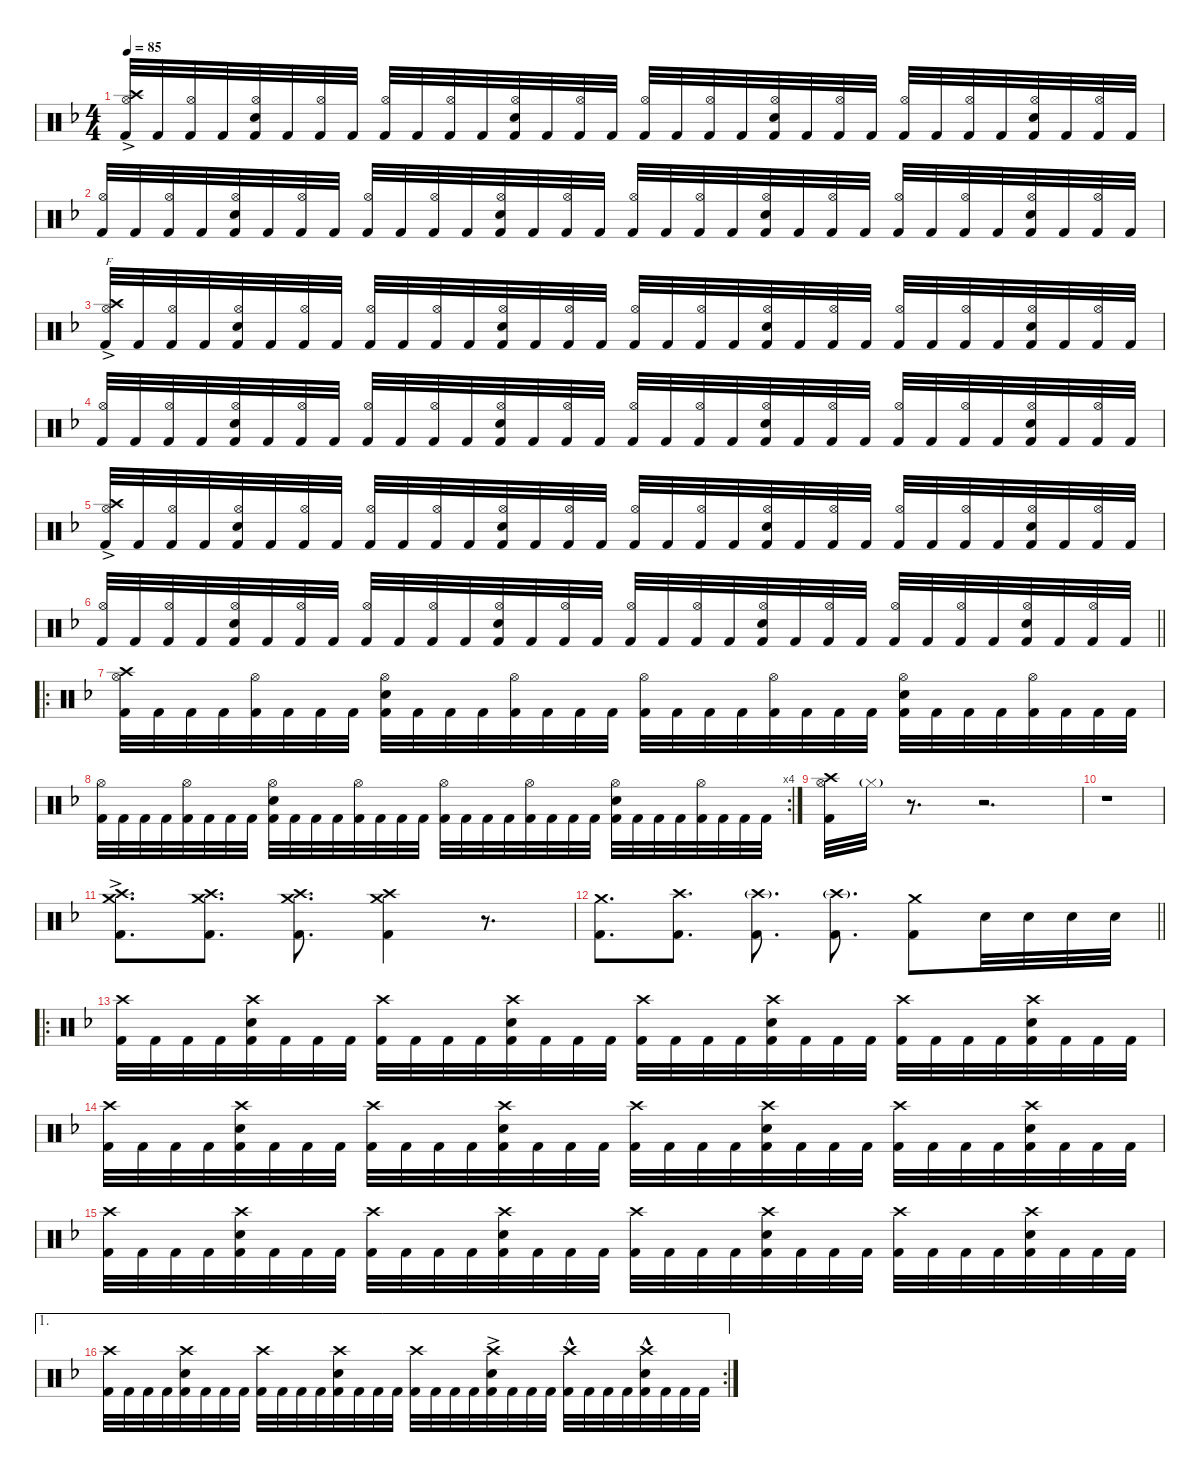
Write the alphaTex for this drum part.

\defaultSystemsLayout 4
\hideDynamics
\bracketExtendMode nobrackets
\singleTrackTrackNamePolicy hidden
\multiTrackTrackNamePolicy hidden
\firstSystemTrackNameMode fullname
\firstSystemTrackNameOrientation horizontal
\otherSystemsTrackNameOrientation horizontal
\track ("Martin Lopez - Drums" "drm.") {instrument percussion}
\staff {score}
\articulation defaults
\ts (4 4)
\tempo 85
\clef neutral
\ks f
("Crash high (hit)"{ac acc forcenatural} "Hi-Hat (open)"{acc forcenatural} "Kick (hit) 2"{acc forcenatural}).32{dy f beam Up} "Kick (hit) 2"{acc forcenatural}.32{beam Up} ("Hi-Hat (open)"{acc forcenatural} "Kick (hit) 2"{acc forcenatural}).32{beam Up} "Kick (hit) 2"{acc forcenatural}.32{beam Up} ("Hi-Hat (open)"{acc forcenatural} "Snare (hit) 2"{acc forcenatural} "Kick (hit) 2"{acc forcenatural}).32{beam Up} "Kick (hit) 2"{acc forcenatural}.32{beam Up} ("Hi-Hat (open)"{acc forcenatural} "Kick (hit) 2"{acc forcenatural}).32{beam Up} "Kick (hit) 2"{acc forcenatural}.32{beam Up} ("Hi-Hat (open)"{acc forcenatural} "Kick (hit) 2"{acc forcenatural}).32{beam Up} "Kick (hit) 2"{acc forcenatural}.32{beam Up} ("Hi-Hat (open)"{acc forcenatural} "Kick (hit) 2"{acc forcenatural}).32{beam Up} "Kick (hit) 2"{acc forcenatural}.32{beam Up} ("Hi-Hat (open)"{acc forcenatural} "Snare (hit) 2"{acc forcenatural} "Kick (hit) 2"{acc forcenatural}).32{beam Up} "Kick (hit) 2"{acc forcenatural}.32{beam Up} ("Hi-Hat (open)"{acc forcenatural} "Kick (hit) 2"{acc forcenatural}).32{beam Up} "Kick (hit) 2"{acc forcenatural}.32{beam Up} ("Hi-Hat (open)"{acc forcenatural} "Kick (hit) 2"{acc forcenatural}).32{beam Up} "Kick (hit) 2"{acc forcenatural}.32{beam Up} ("Hi-Hat (open)"{acc forcenatural} "Kick (hit) 2"{acc forcenatural}).32{beam Up} "Kick (hit) 2"{acc forcenatural}.32{beam Up} ("Hi-Hat (open)"{acc forcenatural} "Snare (hit) 2"{acc forcenatural} "Kick (hit) 2"{acc forcenatural}).32{beam Up} "Kick (hit) 2"{acc forcenatural}.32{beam Up} ("Hi-Hat (open)"{acc forcenatural} "Kick (hit) 2"{acc forcenatural}).32{beam Up} "Kick (hit) 2"{acc forcenatural}.32{beam Up} ("Hi-Hat (open)"{acc forcenatural} "Kick (hit) 2"{acc forcenatural}).32{beam Up} "Kick (hit) 2"{acc forcenatural}.32{beam Up} ("Hi-Hat (open)"{acc forcenatural} "Kick (hit) 2"{acc forcenatural}).32{beam Up} "Kick (hit) 2"{acc forcenatural}.32{beam Up} ("Hi-Hat (open)"{acc forcenatural} "Snare (hit) 2"{acc forcenatural} "Kick (hit) 2"{acc forcenatural}).32{beam Up} "Kick (hit) 2"{acc forcenatural}.32{beam Up} ("Hi-Hat (open)"{acc forcenatural} "Kick (hit) 2"{acc forcenatural}).32{beam Up} "Kick (hit) 2"{acc forcenatural}.32{beam Up} |
("Hi-Hat (open)"{acc forcenatural} "Kick (hit) 2"{acc forcenatural}).32{beam Up} "Kick (hit) 2"{acc forcenatural}.32{beam Up} ("Hi-Hat (open)"{acc forcenatural} "Kick (hit) 2"{acc forcenatural}).32{beam Up} "Kick (hit) 2"{acc forcenatural}.32{beam Up} ("Hi-Hat (open)"{acc forcenatural} "Snare (hit) 2"{acc forcenatural} "Kick (hit) 2"{acc forcenatural}).32{beam Up} "Kick (hit) 2"{acc forcenatural}.32{beam Up} ("Hi-Hat (open)"{acc forcenatural} "Kick (hit) 2"{acc forcenatural}).32{beam Up} "Kick (hit) 2"{acc forcenatural}.32{beam Up} ("Hi-Hat (open)"{acc forcenatural} "Kick (hit) 2"{acc forcenatural}).32{beam Up} "Kick (hit) 2"{acc forcenatural}.32{beam Up} ("Hi-Hat (open)"{acc forcenatural} "Kick (hit) 2"{acc forcenatural}).32{beam Up} "Kick (hit) 2"{acc forcenatural}.32{beam Up} ("Hi-Hat (open)"{acc forcenatural} "Snare (hit) 2"{acc forcenatural} "Kick (hit) 2"{acc forcenatural}).32{beam Up} "Kick (hit) 2"{acc forcenatural}.32{beam Up} ("Hi-Hat (open)"{acc forcenatural} "Kick (hit) 2"{acc forcenatural}).32{beam Up} "Kick (hit) 2"{acc forcenatural}.32{beam Up} ("Hi-Hat (open)"{acc forcenatural} "Kick (hit) 2"{acc forcenatural}).32{beam Up} "Kick (hit) 2"{acc forcenatural}.32{beam Up} ("Hi-Hat (open)"{acc forcenatural} "Kick (hit) 2"{acc forcenatural}).32{beam Up} "Kick (hit) 2"{acc forcenatural}.32{beam Up} ("Hi-Hat (open)"{acc forcenatural} "Snare (hit) 2"{acc forcenatural} "Kick (hit) 2"{acc forcenatural}).32{beam Up} "Kick (hit) 2"{acc forcenatural}.32{beam Up} ("Hi-Hat (open)"{acc forcenatural} "Kick (hit) 2"{acc forcenatural}).32{beam Up} "Kick (hit) 2"{acc forcenatural}.32{beam Up} ("Hi-Hat (open)"{acc forcenatural} "Kick (hit) 2"{acc forcenatural}).32{beam Up} "Kick (hit) 2"{acc forcenatural}.32{beam Up} ("Hi-Hat (open)"{acc forcenatural} "Kick (hit) 2"{acc forcenatural}).32{beam Up} "Kick (hit) 2"{acc forcenatural}.32{beam Up} ("Hi-Hat (open)"{acc forcenatural} "Snare (hit) 2"{acc forcenatural} "Kick (hit) 2"{acc forcenatural}).32{beam Up} "Kick (hit) 2"{acc forcenatural}.32{beam Up} ("Hi-Hat (open)"{acc forcenatural} "Kick (hit) 2"{acc forcenatural}).32{beam Up} "Kick (hit) 2"{acc forcenatural}.32{beam Up} |
("Crash high (hit)"{ac acc forcenatural} "Hi-Hat (open)"{acc forcenatural} "Kick (hit) 2"{acc forcenatural}).32{txt "F" beam Up} "Kick (hit) 2"{acc forcenatural}.32{beam Up} ("Hi-Hat (open)"{acc forcenatural} "Kick (hit) 2"{acc forcenatural}).32{beam Up} "Kick (hit) 2"{acc forcenatural}.32{beam Up} ("Hi-Hat (open)"{acc forcenatural} "Snare (hit) 2"{acc forcenatural} "Kick (hit) 2"{acc forcenatural}).32{beam Up} "Kick (hit) 2"{acc forcenatural}.32{beam Up} ("Hi-Hat (open)"{acc forcenatural} "Kick (hit) 2"{acc forcenatural}).32{beam Up} "Kick (hit) 2"{acc forcenatural}.32{beam Up} ("Hi-Hat (open)"{acc forcenatural} "Kick (hit) 2"{acc forcenatural}).32{beam Up} "Kick (hit) 2"{acc forcenatural}.32{beam Up} ("Hi-Hat (open)"{acc forcenatural} "Kick (hit) 2"{acc forcenatural}).32{beam Up} "Kick (hit) 2"{acc forcenatural}.32{beam Up} ("Hi-Hat (open)"{acc forcenatural} "Snare (hit) 2"{acc forcenatural} "Kick (hit) 2"{acc forcenatural}).32{beam Up} "Kick (hit) 2"{acc forcenatural}.32{beam Up} ("Hi-Hat (open)"{acc forcenatural} "Kick (hit) 2"{acc forcenatural}).32{beam Up} "Kick (hit) 2"{acc forcenatural}.32{beam Up} ("Hi-Hat (open)"{acc forcenatural} "Kick (hit) 2"{acc forcenatural}).32{beam Up} "Kick (hit) 2"{acc forcenatural}.32{beam Up} ("Hi-Hat (open)"{acc forcenatural} "Kick (hit) 2"{acc forcenatural}).32{beam Up} "Kick (hit) 2"{acc forcenatural}.32{beam Up} ("Hi-Hat (open)"{acc forcenatural} "Snare (hit) 2"{acc forcenatural} "Kick (hit) 2"{acc forcenatural}).32{beam Up} "Kick (hit) 2"{acc forcenatural}.32{beam Up} ("Hi-Hat (open)"{acc forcenatural} "Kick (hit) 2"{acc forcenatural}).32{beam Up} "Kick (hit) 2"{acc forcenatural}.32{beam Up} ("Hi-Hat (open)"{acc forcenatural} "Kick (hit) 2"{acc forcenatural}).32{beam Up} "Kick (hit) 2"{acc forcenatural}.32{beam Up} ("Hi-Hat (open)"{acc forcenatural} "Kick (hit) 2"{acc forcenatural}).32{beam Up} "Kick (hit) 2"{acc forcenatural}.32{beam Up} ("Hi-Hat (open)"{acc forcenatural} "Snare (hit) 2"{acc forcenatural} "Kick (hit) 2"{acc forcenatural}).32{beam Up} "Kick (hit) 2"{acc forcenatural}.32{beam Up} ("Hi-Hat (open)"{acc forcenatural} "Kick (hit) 2"{acc forcenatural}).32{beam Up} "Kick (hit) 2"{acc forcenatural}.32{beam Up} |
("Hi-Hat (open)"{acc forcenatural} "Kick (hit) 2"{acc forcenatural}).32{beam Up} "Kick (hit) 2"{acc forcenatural}.32{beam Up} ("Hi-Hat (open)"{acc forcenatural} "Kick (hit) 2"{acc forcenatural}).32{beam Up} "Kick (hit) 2"{acc forcenatural}.32{beam Up} ("Hi-Hat (open)"{acc forcenatural} "Snare (hit) 2"{acc forcenatural} "Kick (hit) 2"{acc forcenatural}).32{beam Up} "Kick (hit) 2"{acc forcenatural}.32{beam Up} ("Hi-Hat (open)"{acc forcenatural} "Kick (hit) 2"{acc forcenatural}).32{beam Up} "Kick (hit) 2"{acc forcenatural}.32{beam Up} ("Hi-Hat (open)"{acc forcenatural} "Kick (hit) 2"{acc forcenatural}).32{beam Up} "Kick (hit) 2"{acc forcenatural}.32{beam Up} ("Hi-Hat (open)"{acc forcenatural} "Kick (hit) 2"{acc forcenatural}).32{beam Up} "Kick (hit) 2"{acc forcenatural}.32{beam Up} ("Hi-Hat (open)"{acc forcenatural} "Snare (hit) 2"{acc forcenatural} "Kick (hit) 2"{acc forcenatural}).32{beam Up} "Kick (hit) 2"{acc forcenatural}.32{beam Up} ("Hi-Hat (open)"{acc forcenatural} "Kick (hit) 2"{acc forcenatural}).32{beam Up} "Kick (hit) 2"{acc forcenatural}.32{beam Up} ("Hi-Hat (open)"{acc forcenatural} "Kick (hit) 2"{acc forcenatural}).32{beam Up} "Kick (hit) 2"{acc forcenatural}.32{beam Up} ("Hi-Hat (open)"{acc forcenatural} "Kick (hit) 2"{acc forcenatural}).32{beam Up} "Kick (hit) 2"{acc forcenatural}.32{beam Up} ("Hi-Hat (open)"{acc forcenatural} "Snare (hit) 2"{acc forcenatural} "Kick (hit) 2"{acc forcenatural}).32{beam Up} "Kick (hit) 2"{acc forcenatural}.32{beam Up} ("Hi-Hat (open)"{acc forcenatural} "Kick (hit) 2"{acc forcenatural}).32{beam Up} "Kick (hit) 2"{acc forcenatural}.32{beam Up} ("Hi-Hat (open)"{acc forcenatural} "Kick (hit) 2"{acc forcenatural}).32{beam Up} "Kick (hit) 2"{acc forcenatural}.32{beam Up} ("Hi-Hat (open)"{acc forcenatural} "Kick (hit) 2"{acc forcenatural}).32{beam Up} "Kick (hit) 2"{acc forcenatural}.32{beam Up} ("Hi-Hat (open)"{acc forcenatural} "Snare (hit) 2"{acc forcenatural} "Kick (hit) 2"{acc forcenatural}).32{beam Up} "Kick (hit) 2"{acc forcenatural}.32{beam Up} ("Hi-Hat (open)"{acc forcenatural} "Kick (hit) 2"{acc forcenatural}).32{beam Up} "Kick (hit) 2"{acc forcenatural}.32{beam Up} |
("Crash high (hit)"{ac acc forcenatural} "Hi-Hat (open)"{acc forcenatural} "Kick (hit) 2"{acc forcenatural}).32{beam Up} "Kick (hit) 2"{acc forcenatural}.32{beam Up} ("Hi-Hat (open)"{acc forcenatural} "Kick (hit) 2"{acc forcenatural}).32{beam Up} "Kick (hit) 2"{acc forcenatural}.32{beam Up} ("Hi-Hat (open)"{acc forcenatural} "Snare (hit) 2"{acc forcenatural} "Kick (hit) 2"{acc forcenatural}).32{beam Up} "Kick (hit) 2"{acc forcenatural}.32{beam Up} ("Hi-Hat (open)"{acc forcenatural} "Kick (hit) 2"{acc forcenatural}).32{beam Up} "Kick (hit) 2"{acc forcenatural}.32{beam Up} ("Hi-Hat (open)"{acc forcenatural} "Kick (hit) 2"{acc forcenatural}).32{beam Up} "Kick (hit) 2"{acc forcenatural}.32{beam Up} ("Hi-Hat (open)"{acc forcenatural} "Kick (hit) 2"{acc forcenatural}).32{beam Up} "Kick (hit) 2"{acc forcenatural}.32{beam Up} ("Hi-Hat (open)"{acc forcenatural} "Snare (hit) 2"{acc forcenatural} "Kick (hit) 2"{acc forcenatural}).32{beam Up} "Kick (hit) 2"{acc forcenatural}.32{beam Up} ("Hi-Hat (open)"{acc forcenatural} "Kick (hit) 2"{acc forcenatural}).32{beam Up} "Kick (hit) 2"{acc forcenatural}.32{beam Up} ("Hi-Hat (open)"{acc forcenatural} "Kick (hit) 2"{acc forcenatural}).32{beam Up} "Kick (hit) 2"{acc forcenatural}.32{beam Up} ("Hi-Hat (open)"{acc forcenatural} "Kick (hit) 2"{acc forcenatural}).32{beam Up} "Kick (hit) 2"{acc forcenatural}.32{beam Up} ("Hi-Hat (open)"{acc forcenatural} "Snare (hit) 2"{acc forcenatural} "Kick (hit) 2"{acc forcenatural}).32{beam Up} "Kick (hit) 2"{acc forcenatural}.32{beam Up} ("Hi-Hat (open)"{acc forcenatural} "Kick (hit) 2"{acc forcenatural}).32{beam Up} "Kick (hit) 2"{acc forcenatural}.32{beam Up} ("Hi-Hat (open)"{acc forcenatural} "Kick (hit) 2"{acc forcenatural}).32{beam Up} "Kick (hit) 2"{acc forcenatural}.32{beam Up} ("Hi-Hat (open)"{acc forcenatural} "Kick (hit) 2"{acc forcenatural}).32{beam Up} "Kick (hit) 2"{acc forcenatural}.32{beam Up} ("Hi-Hat (open)"{acc forcenatural} "Snare (hit) 2"{acc forcenatural} "Kick (hit) 2"{acc forcenatural}).32{beam Up} "Kick (hit) 2"{acc forcenatural}.32{beam Up} ("Hi-Hat (open)"{acc forcenatural} "Kick (hit) 2"{acc forcenatural}).32{beam Up} "Kick (hit) 2"{acc forcenatural}.32{beam Up} |
\barLineRight lightlight
("Hi-Hat (open)"{acc forcenatural} "Kick (hit) 2"{acc forcenatural}).32{beam Up} "Kick (hit) 2"{acc forcenatural}.32{beam Up} ("Hi-Hat (open)"{acc forcenatural} "Kick (hit) 2"{acc forcenatural}).32{beam Up} "Kick (hit) 2"{acc forcenatural}.32{beam Up} ("Hi-Hat (open)"{acc forcenatural} "Snare (hit) 2"{acc forcenatural} "Kick (hit) 2"{acc forcenatural}).32{beam Up} "Kick (hit) 2"{acc forcenatural}.32{beam Up} ("Hi-Hat (open)"{acc forcenatural} "Kick (hit) 2"{acc forcenatural}).32{beam Up} "Kick (hit) 2"{acc forcenatural}.32{beam Up} ("Hi-Hat (open)"{acc forcenatural} "Kick (hit) 2"{acc forcenatural}).32{beam Up} "Kick (hit) 2"{acc forcenatural}.32{beam Up} ("Hi-Hat (open)"{acc forcenatural} "Kick (hit) 2"{acc forcenatural}).32{beam Up} "Kick (hit) 2"{acc forcenatural}.32{beam Up} ("Hi-Hat (open)"{acc forcenatural} "Snare (hit) 2"{acc forcenatural} "Kick (hit) 2"{acc forcenatural}).32{beam Up} "Kick (hit) 2"{acc forcenatural}.32{beam Up} ("Hi-Hat (open)"{acc forcenatural} "Kick (hit) 2"{acc forcenatural}).32{beam Up} "Kick (hit) 2"{acc forcenatural}.32{beam Up} ("Hi-Hat (open)"{acc forcenatural} "Kick (hit) 2"{acc forcenatural}).32{beam Up} "Kick (hit) 2"{acc forcenatural}.32{beam Up} ("Hi-Hat (open)"{acc forcenatural} "Kick (hit) 2"{acc forcenatural}).32{beam Up} "Kick (hit) 2"{acc forcenatural}.32{beam Up} ("Hi-Hat (open)"{acc forcenatural} "Snare (hit) 2"{acc forcenatural} "Kick (hit) 2"{acc forcenatural}).32{beam Up} "Kick (hit) 2"{acc forcenatural}.32{beam Up} ("Hi-Hat (open)"{acc forcenatural} "Kick (hit) 2"{acc forcenatural}).32{beam Up} "Kick (hit) 2"{acc forcenatural}.32{beam Up} ("Hi-Hat (open)"{acc forcenatural} "Kick (hit) 2"{acc forcenatural}).32{beam Up} "Kick (hit) 2"{acc forcenatural}.32{beam Up} ("Hi-Hat (open)"{acc forcenatural} "Kick (hit) 2"{acc forcenatural}).32{beam Up} "Kick (hit) 2"{acc forcenatural}.32{beam Up} ("Hi-Hat (open)"{acc forcenatural} "Snare (hit) 2"{acc forcenatural} "Kick (hit) 2"{acc forcenatural}).32{beam Up} "Kick (hit) 2"{acc forcenatural}.32{beam Up} ("Hi-Hat (open)"{acc forcenatural} "Kick (hit) 2"{acc forcenatural}).32{beam Up} "Kick (hit) 2"{acc forcenatural}.32{beam Up} |
\ro
("Crash high (hit)"{acc forcenatural} "Hi-Hat (open)"{acc forcenatural} "Kick (hit) 2"{acc forcenatural}).32{beam Down} "Kick (hit) 2"{acc forcenatural}.32{beam Down} "Kick (hit) 2"{acc forcenatural}.32{beam Down} "Kick (hit) 2"{acc forcenatural}.32{beam Down} ("Hi-Hat (open)"{acc forcenatural} "Kick (hit) 2"{acc forcenatural}).32{beam Down} "Kick (hit) 2"{acc forcenatural}.32{beam Down} "Kick (hit) 2"{acc forcenatural}.32{beam Down} "Kick (hit) 2"{acc forcenatural}.32{beam Down} ("Hi-Hat (open)"{acc forcenatural} "Snare (hit) 2"{acc forcenatural} "Kick (hit) 2"{acc forcenatural}).32{beam Down} "Kick (hit) 2"{acc forcenatural}.32{beam Down} "Kick (hit) 2"{acc forcenatural}.32{beam Down} "Kick (hit) 2"{acc forcenatural}.32{beam Down} ("Hi-Hat (open)"{acc forcenatural} "Kick (hit) 2"{acc forcenatural}).32{beam Down} "Kick (hit) 2"{acc forcenatural}.32{beam Down} "Kick (hit) 2"{acc forcenatural}.32{beam Down} "Kick (hit) 2"{acc forcenatural}.32{beam Down} ("Hi-Hat (open)"{acc forcenatural} "Kick (hit) 2"{acc forcenatural}).32{beam Down} "Kick (hit) 2"{acc forcenatural}.32{beam Down} "Kick (hit) 2"{acc forcenatural}.32{beam Down} "Kick (hit) 2"{acc forcenatural}.32{beam Down} ("Hi-Hat (open)"{acc forcenatural} "Kick (hit) 2"{acc forcenatural}).32{beam Down} "Kick (hit) 2"{acc forcenatural}.32{beam Down} "Kick (hit) 2"{acc forcenatural}.32{beam Down} "Kick (hit) 2"{acc forcenatural}.32{beam Down} ("Hi-Hat (open)"{acc forcenatural} "Snare (hit) 2"{acc forcenatural} "Kick (hit) 2"{acc forcenatural}).32{beam Down} "Kick (hit) 2"{acc forcenatural}.32{beam Down} "Kick (hit) 2"{acc forcenatural}.32{beam Down} "Kick (hit) 2"{acc forcenatural}.32{beam Down} ("Hi-Hat (open)"{acc forcenatural} "Kick (hit) 2"{acc forcenatural}).32{beam Down} "Kick (hit) 2"{acc forcenatural}.32{beam Down} "Kick (hit) 2"{acc forcenatural}.32{beam Down} "Kick (hit) 2"{acc forcenatural}.32{beam Down} |
\rc 4
("Hi-Hat (open)"{acc forcenatural} "Kick (hit) 2"{acc forcenatural}).32{beam Down} "Kick (hit) 2"{acc forcenatural}.32{beam Down} "Kick (hit) 2"{acc forcenatural}.32{beam Down} "Kick (hit) 2"{acc forcenatural}.32{beam Down} ("Hi-Hat (open)"{acc forcenatural} "Kick (hit) 2"{acc forcenatural}).32{beam Down} "Kick (hit) 2"{acc forcenatural}.32{beam Down} "Kick (hit) 2"{acc forcenatural}.32{beam Down} "Kick (hit) 2"{acc forcenatural}.32{beam Down} ("Hi-Hat (open)"{acc forcenatural} "Snare (hit) 2"{acc forcenatural} "Kick (hit) 2"{acc forcenatural}).32{beam Down} "Kick (hit) 2"{acc forcenatural}.32{beam Down} "Kick (hit) 2"{acc forcenatural}.32{beam Down} "Kick (hit) 2"{acc forcenatural}.32{beam Down} ("Hi-Hat (open)"{acc forcenatural} "Kick (hit) 2"{acc forcenatural}).32{beam Down} "Kick (hit) 2"{acc forcenatural}.32{beam Down} "Kick (hit) 2"{acc forcenatural}.32{beam Down} "Kick (hit) 2"{acc forcenatural}.32{beam Down} ("Hi-Hat (open)"{acc forcenatural} "Kick (hit) 2"{acc forcenatural}).32{beam Down} "Kick (hit) 2"{acc forcenatural}.32{beam Down} "Kick (hit) 2"{acc forcenatural}.32{beam Down} "Kick (hit) 2"{acc forcenatural}.32{beam Down} ("Hi-Hat (open)"{acc forcenatural} "Kick (hit) 2"{acc forcenatural}).32{beam Down} "Kick (hit) 2"{acc forcenatural}.32{beam Down} "Kick (hit) 2"{acc forcenatural}.32{beam Down} "Kick (hit) 2"{acc forcenatural}.32{beam Down} ("Hi-Hat (open)"{acc forcenatural} "Snare (hit) 2"{acc forcenatural} "Kick (hit) 2"{acc forcenatural}).32{beam Down} "Kick (hit) 2"{acc forcenatural}.32{beam Down} "Kick (hit) 2"{acc forcenatural}.32{beam Down} "Kick (hit) 2"{acc forcenatural}.32{beam Down} ("Hi-Hat (open)"{acc forcenatural} "Kick (hit) 2"{acc forcenatural}).32{beam Down} "Kick (hit) 2"{acc forcenatural}.32{beam Down} "Kick (hit) 2"{acc forcenatural}.32{beam Down} "Kick (hit) 2"{acc forcenatural}.32{beam Down} |
("Crash high (hit)"{acc forcenatural} "Hi-Hat (open)"{acc forcenatural} "Kick (hit) 2"{acc forcenatural}).32{beam Down} "Hi-Hat (closed)"{g acc forcenatural}.32{dy mf beam Down} r.8{d beam Down} r.2{d beam Down} |
r.1{beam Down} |
("Crash medium (hit)"{ac acc forcenatural} "Crash high (hit)"{ac acc forcenatural} "Kick (hit) 2"{ac acc forcenatural}).8{d dy f beam Down} ("Crash medium (hit)"{acc forcenatural} "Crash high (hit)"{acc forcenatural} "Kick (hit) 2"{acc forcenatural}).8{d beam Down} ("Crash medium (hit)"{acc forcenatural} "Crash high (hit)"{acc forcenatural} "Kick (hit) 2"{acc forcenatural}).8{d beam Down} ("Crash medium (hit)"{acc forcenatural} "Crash high (hit)"{acc forcenatural} "Kick (hit) 2"{acc forcenatural}).4{beam Down} r.8{d beam Down} |
\barLineRight lightlight
("Crash medium (hit)"{acc forcenatural} "Kick (hit) 2"{acc forcenatural}).8{d beam Down} ("Crash high (hit)"{acc forcenatural} "Kick (hit) 2"{acc forcenatural}).8{d beam Down} ("Crash high (hit)"{g acc forcenatural} "Kick (hit) 2"{acc forcenatural}).8{d beam Down} ("Crash high (hit)"{g acc forcenatural} "Kick (hit) 2"{acc forcenatural}).8{d beam Down} ("Crash medium (hit)"{acc forcenatural} "Kick (hit) 2"{acc forcenatural}).8{beam Down} "Snare (hit) 2"{acc forcenatural}.32{beam Down} "Snare (hit) 2"{acc forcenatural}.32{beam Down} "Snare (hit) 2"{acc forcenatural}.32{beam Down} "Snare (hit) 2"{acc forcenatural}.32{beam Down} |
\ro
("Crash high (hit)"{acc forcenatural} "Kick (hit) 2"{acc forcenatural}).32{beam Down} "Kick (hit) 2"{acc forcenatural}.32{beam Down} "Kick (hit) 2"{acc forcenatural}.32{beam Down} "Kick (hit) 2"{acc forcenatural}.32{beam Down} ("Crash high (hit)"{acc forcenatural} "Snare (hit) 2"{acc forcenatural} "Kick (hit) 2"{acc forcenatural}).32{beam Down} "Kick (hit) 2"{acc forcenatural}.32{beam Down} "Kick (hit) 2"{acc forcenatural}.32{beam Down} "Kick (hit) 2"{acc forcenatural}.32{beam Down} ("Crash high (hit)"{acc forcenatural} "Kick (hit) 2"{acc forcenatural}).32{beam Down} "Kick (hit) 2"{acc forcenatural}.32{beam Down} "Kick (hit) 2"{acc forcenatural}.32{beam Down} "Kick (hit) 2"{acc forcenatural}.32{beam Down} ("Crash high (hit)"{acc forcenatural} "Snare (hit) 2"{acc forcenatural} "Kick (hit) 2"{acc forcenatural}).32{beam Down} "Kick (hit) 2"{acc forcenatural}.32{beam Down} "Kick (hit) 2"{acc forcenatural}.32{beam Down} "Kick (hit) 2"{acc forcenatural}.32{beam Down} ("Crash high (hit)"{acc forcenatural} "Kick (hit) 2"{acc forcenatural}).32{beam Down} "Kick (hit) 2"{acc forcenatural}.32{beam Down} "Kick (hit) 2"{acc forcenatural}.32{beam Down} "Kick (hit) 2"{acc forcenatural}.32{beam Down} ("Crash high (hit)"{acc forcenatural} "Snare (hit) 2"{acc forcenatural} "Kick (hit) 2"{acc forcenatural}).32{beam Down} "Kick (hit) 2"{acc forcenatural}.32{beam Down} "Kick (hit) 2"{acc forcenatural}.32{beam Down} "Kick (hit) 2"{acc forcenatural}.32{beam Down} ("Crash high (hit)"{acc forcenatural} "Kick (hit) 2"{acc forcenatural}).32{beam Down} "Kick (hit) 2"{acc forcenatural}.32{beam Down} "Kick (hit) 2"{acc forcenatural}.32{beam Down} "Kick (hit) 2"{acc forcenatural}.32{beam Down} ("Crash high (hit)"{acc forcenatural} "Snare (hit) 2"{acc forcenatural} "Kick (hit) 2"{acc forcenatural}).32{beam Down} "Kick (hit) 2"{acc forcenatural}.32{beam Down} "Kick (hit) 2"{acc forcenatural}.32{beam Down} "Kick (hit) 2"{acc forcenatural}.32{beam Down} |
("Crash high (hit)"{acc forcenatural} "Kick (hit) 2"{acc forcenatural}).32{beam Down} "Kick (hit) 2"{acc forcenatural}.32{beam Down} "Kick (hit) 2"{acc forcenatural}.32{beam Down} "Kick (hit) 2"{acc forcenatural}.32{beam Down} ("Crash high (hit)"{acc forcenatural} "Snare (hit) 2"{acc forcenatural} "Kick (hit) 2"{acc forcenatural}).32{beam Down} "Kick (hit) 2"{acc forcenatural}.32{beam Down} "Kick (hit) 2"{acc forcenatural}.32{beam Down} "Kick (hit) 2"{acc forcenatural}.32{beam Down} ("Crash high (hit)"{acc forcenatural} "Kick (hit) 2"{acc forcenatural}).32{beam Down} "Kick (hit) 2"{acc forcenatural}.32{beam Down} "Kick (hit) 2"{acc forcenatural}.32{beam Down} "Kick (hit) 2"{acc forcenatural}.32{beam Down} ("Crash high (hit)"{acc forcenatural} "Snare (hit) 2"{acc forcenatural} "Kick (hit) 2"{acc forcenatural}).32{beam Down} "Kick (hit) 2"{acc forcenatural}.32{beam Down} "Kick (hit) 2"{acc forcenatural}.32{beam Down} "Kick (hit) 2"{acc forcenatural}.32{beam Down} ("Crash high (hit)"{acc forcenatural} "Kick (hit) 2"{acc forcenatural}).32{beam Down} "Kick (hit) 2"{acc forcenatural}.32{beam Down} "Kick (hit) 2"{acc forcenatural}.32{beam Down} "Kick (hit) 2"{acc forcenatural}.32{beam Down} ("Crash high (hit)"{acc forcenatural} "Snare (hit) 2"{acc forcenatural} "Kick (hit) 2"{acc forcenatural}).32{beam Down} "Kick (hit) 2"{acc forcenatural}.32{beam Down} "Kick (hit) 2"{acc forcenatural}.32{beam Down} "Kick (hit) 2"{acc forcenatural}.32{beam Down} ("Crash high (hit)"{acc forcenatural} "Kick (hit) 2"{acc forcenatural}).32{beam Down} "Kick (hit) 2"{acc forcenatural}.32{beam Down} "Kick (hit) 2"{acc forcenatural}.32{beam Down} "Kick (hit) 2"{acc forcenatural}.32{beam Down} ("Crash high (hit)"{acc forcenatural} "Snare (hit) 2"{acc forcenatural} "Kick (hit) 2"{acc forcenatural}).32{beam Down} "Kick (hit) 2"{acc forcenatural}.32{beam Down} "Kick (hit) 2"{acc forcenatural}.32{beam Down} "Kick (hit) 2"{acc forcenatural}.32{beam Down} |
("Crash high (hit)"{acc forcenatural} "Kick (hit) 2"{acc forcenatural}).32{beam Down} "Kick (hit) 2"{acc forcenatural}.32{beam Down} "Kick (hit) 2"{acc forcenatural}.32{beam Down} "Kick (hit) 2"{acc forcenatural}.32{beam Down} ("Crash high (hit)"{acc forcenatural} "Snare (hit) 2"{acc forcenatural} "Kick (hit) 2"{acc forcenatural}).32{beam Down} "Kick (hit) 2"{acc forcenatural}.32{beam Down} "Kick (hit) 2"{acc forcenatural}.32{beam Down} "Kick (hit) 2"{acc forcenatural}.32{beam Down} ("Crash high (hit)"{acc forcenatural} "Kick (hit) 2"{acc forcenatural}).32{beam Down} "Kick (hit) 2"{acc forcenatural}.32{beam Down} "Kick (hit) 2"{acc forcenatural}.32{beam Down} "Kick (hit) 2"{acc forcenatural}.32{beam Down} ("Crash high (hit)"{acc forcenatural} "Snare (hit) 2"{acc forcenatural} "Kick (hit) 2"{acc forcenatural}).32{beam Down} "Kick (hit) 2"{acc forcenatural}.32{beam Down} "Kick (hit) 2"{acc forcenatural}.32{beam Down} "Kick (hit) 2"{acc forcenatural}.32{beam Down} ("Crash high (hit)"{acc forcenatural} "Kick (hit) 2"{acc forcenatural}).32{beam Down} "Kick (hit) 2"{acc forcenatural}.32{beam Down} "Kick (hit) 2"{acc forcenatural}.32{beam Down} "Kick (hit) 2"{acc forcenatural}.32{beam Down} ("Crash high (hit)"{acc forcenatural} "Snare (hit) 2"{acc forcenatural} "Kick (hit) 2"{acc forcenatural}).32{beam Down} "Kick (hit) 2"{acc forcenatural}.32{beam Down} "Kick (hit) 2"{acc forcenatural}.32{beam Down} "Kick (hit) 2"{acc forcenatural}.32{beam Down} ("Crash high (hit)"{acc forcenatural} "Kick (hit) 2"{acc forcenatural}).32{beam Down} "Kick (hit) 2"{acc forcenatural}.32{beam Down} "Kick (hit) 2"{acc forcenatural}.32{beam Down} "Kick (hit) 2"{acc forcenatural}.32{beam Down} ("Crash high (hit)"{acc forcenatural} "Snare (hit) 2"{acc forcenatural} "Kick (hit) 2"{acc forcenatural}).32{beam Down} "Kick (hit) 2"{acc forcenatural}.32{beam Down} "Kick (hit) 2"{acc forcenatural}.32{beam Down} "Kick (hit) 2"{acc forcenatural}.32{beam Down} |
\ae 1
\rc 2
("Crash high (hit)"{acc forcenatural} "Kick (hit) 2"{acc forcenatural}).32{beam Down} "Kick (hit) 2"{acc forcenatural}.32{beam Down} "Kick (hit) 2"{acc forcenatural}.32{beam Down} "Kick (hit) 2"{acc forcenatural}.32{beam Down} ("Crash high (hit)"{acc forcenatural} "Snare (hit) 2"{acc forcenatural} "Kick (hit) 2"{acc forcenatural}).32{beam Down} "Kick (hit) 2"{acc forcenatural}.32{beam Down} "Kick (hit) 2"{acc forcenatural}.32{beam Down} "Kick (hit) 2"{acc forcenatural}.32{beam Down} ("Crash high (hit)"{acc forcenatural} "Kick (hit) 2"{acc forcenatural}).32{beam Down} "Kick (hit) 2"{acc forcenatural}.32{beam Down} "Kick (hit) 2"{acc forcenatural}.32{beam Down} "Kick (hit) 2"{acc forcenatural}.32{beam Down} ("Crash high (hit)"{acc forcenatural} "Snare (hit) 2"{acc forcenatural} "Kick (hit) 2"{acc forcenatural}).32{beam Down} "Kick (hit) 2"{acc forcenatural}.32{beam Down} "Kick (hit) 2"{acc forcenatural}.32{beam Down} "Kick (hit) 2"{acc forcenatural}.32{beam Down} ("Crash high (hit)"{acc forcenatural} "Kick (hit) 2"{acc forcenatural}).32{beam Down} "Kick (hit) 2"{acc forcenatural}.32{beam Down} "Kick (hit) 2"{acc forcenatural}.32{beam Down} "Kick (hit) 2"{acc forcenatural}.32{beam Down} ("Crash high (hit)"{ac acc forcenatural} "Snare (hit) 2"{acc forcenatural} "Kick (hit) 2"{acc forcenatural}).32{beam Down} "Kick (hit) 2"{acc forcenatural}.32{beam Down} "Kick (hit) 2"{acc forcenatural}.32{beam Down} "Kick (hit) 2"{acc forcenatural}.32{beam Down} ("Crash high (hit)"{hac acc forcenatural} "Kick (hit) 2"{acc forcenatural}).32{beam Down} "Kick (hit) 2"{acc forcenatural}.32{beam Down} "Kick (hit) 2"{acc forcenatural}.32{beam Down} "Kick (hit) 2"{acc forcenatural}.32{beam Down} ("Crash high (hit)"{hac acc forcenatural} "Snare (hit) 2"{acc forcenatural} "Kick (hit) 2"{acc forcenatural}).32{beam Down} "Kick (hit) 2"{acc forcenatural}.32{beam Down} "Kick (hit) 2"{acc forcenatural}.32{beam Down} "Kick (hit) 2"{acc forcenatural}.32{beam Down}
